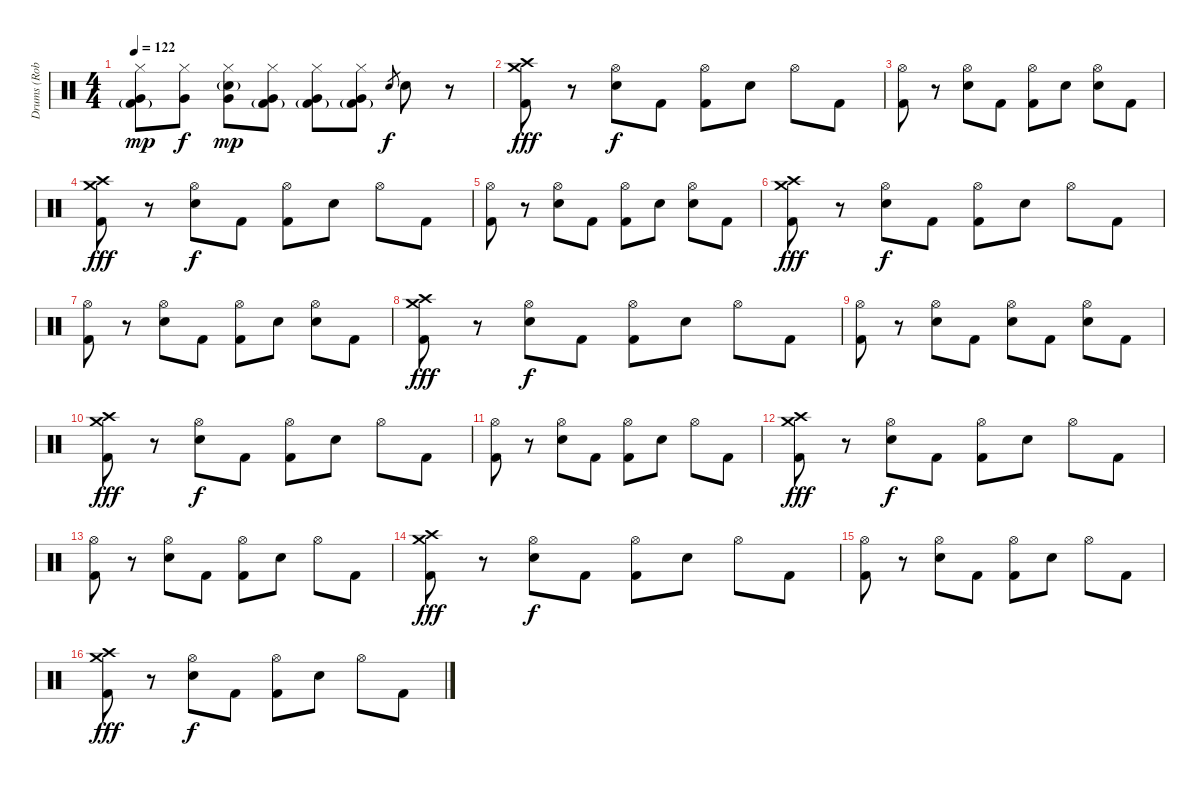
\track ("Drums (Rob Boudron)" "Drums (Rob") {instrument percussion}
\staff {score}
\articulation defaults
\ts (4 4)
\tempo 122
\clef neutral
\ks c
("Hi-Hat (closed)" "Very Low Tom (hit)" "Kick (hit) 2"{g}).8{dy mp} ("Hi-Hat (closed)" "Very Low Tom (hit)").8{dy f} ("Hi-Hat (closed)" "Very Low Tom (hit)" "Electric Snare (hit)"{g}).8{dy mp} ("Hi-Hat (closed)" "Very Low Tom (hit)" "Kick (hit) 2"{g}).8 ("Hi-Hat (closed)" "Very Low Tom (hit)" "Kick (hit) 2"{g}).8 ("Hi-Hat (closed)" "Very Low Tom (hit)" "Kick (hit) 2"{g}).8 "Electric Snare (hit)".8{gr dy f} "Electric Snare (hit)".8 r.8 |
("Crash medium (hit)" "Crash high (hit)" "Kick (hit) 2").8{dy fff} r.8 ("Hi-Hat (open)" "Electric Snare (hit)").8{dy f} "Kick (hit) 2".8 ("Hi-Hat (open)" "Kick (hit) 2").8 "Electric Snare (hit)".8 "Hi-Hat (open)".8 "Kick (hit) 2".8 |
("Hi-Hat (open)" "Kick (hit) 2").8 r.8 ("Hi-Hat (open)" "Electric Snare (hit)").8 "Kick (hit) 2".8 ("Hi-Hat (open)" "Kick (hit) 2").8 "Electric Snare (hit)".8 ("Hi-Hat (open)" "Electric Snare (hit)").8 "Kick (hit) 2".8 |
("Crash medium (hit)" "Crash high (hit)" "Kick (hit) 2").8{dy fff} r.8 ("Hi-Hat (open)" "Electric Snare (hit)").8{dy f} "Kick (hit) 2".8 ("Hi-Hat (open)" "Kick (hit) 2").8 "Electric Snare (hit)".8 "Hi-Hat (open)".8 "Kick (hit) 2".8 |
("Hi-Hat (open)" "Kick (hit) 2").8 r.8 ("Hi-Hat (open)" "Electric Snare (hit)").8 "Kick (hit) 2".8 ("Hi-Hat (open)" "Kick (hit) 2").8 "Electric Snare (hit)".8 ("Hi-Hat (open)" "Electric Snare (hit)").8 "Kick (hit) 2".8 |
("Crash medium (hit)" "Crash high (hit)" "Kick (hit) 2").8{dy fff} r.8 ("Hi-Hat (open)" "Electric Snare (hit)").8{dy f} "Kick (hit) 2".8 ("Hi-Hat (open)" "Kick (hit) 2").8 "Electric Snare (hit)".8 "Hi-Hat (open)".8 "Kick (hit) 2".8 |
("Hi-Hat (open)" "Kick (hit) 2").8 r.8 ("Hi-Hat (open)" "Electric Snare (hit)").8 "Kick (hit) 2".8 ("Hi-Hat (open)" "Kick (hit) 2").8 "Electric Snare (hit)".8 ("Hi-Hat (open)" "Electric Snare (hit)").8 "Kick (hit) 2".8 |
("Crash medium (hit)" "Crash high (hit)" "Kick (hit) 2").8{dy fff} r.8 ("Hi-Hat (open)" "Electric Snare (hit)").8{dy f} "Kick (hit) 2".8 ("Hi-Hat (open)" "Kick (hit) 2").8 "Electric Snare (hit)".8 "Hi-Hat (open)".8 "Kick (hit) 2".8 |
("Hi-Hat (open)" "Kick (hit) 2").8 r.8 ("Hi-Hat (open)" "Electric Snare (hit)").8 "Kick (hit) 2".8 ("Hi-Hat (open)" "Electric Snare (hit)").8 "Kick (hit) 2".8 ("Hi-Hat (open)" "Electric Snare (hit)").8 "Kick (hit) 2".8 |
("Crash medium (hit)" "Crash high (hit)" "Kick (hit) 2").8{dy fff} r.8 ("Hi-Hat (open)" "Electric Snare (hit)").8{dy f} "Kick (hit) 2".8 ("Hi-Hat (open)" "Kick (hit) 2").8 "Electric Snare (hit)".8 "Hi-Hat (open)".8 "Kick (hit) 2".8 |
("Hi-Hat (open)" "Kick (hit) 2").8 r.8 ("Hi-Hat (open)" "Electric Snare (hit)").8 "Kick (hit) 2".8 ("Hi-Hat (open)" "Kick (hit) 2").8 "Electric Snare (hit)".8 "Hi-Hat (open)".8 "Kick (hit) 2".8 |
("Crash medium (hit)" "Crash high (hit)" "Kick (hit) 2").8{dy fff} r.8 ("Hi-Hat (open)" "Electric Snare (hit)").8{dy f} "Kick (hit) 2".8 ("Hi-Hat (open)" "Kick (hit) 2").8 "Electric Snare (hit)".8 "Hi-Hat (open)".8 "Kick (hit) 2".8 |
("Hi-Hat (open)" "Kick (hit) 2").8 r.8 ("Hi-Hat (open)" "Electric Snare (hit)").8 "Kick (hit) 2".8 ("Hi-Hat (open)" "Kick (hit) 2").8 "Electric Snare (hit)".8 "Hi-Hat (open)".8 "Kick (hit) 2".8 |
("Crash medium (hit)" "Crash high (hit)" "Kick (hit) 2").8{dy fff} r.8 ("Hi-Hat (open)" "Electric Snare (hit)").8{dy f} "Kick (hit) 2".8 ("Hi-Hat (open)" "Kick (hit) 2").8 "Electric Snare (hit)".8 "Hi-Hat (open)".8 "Kick (hit) 2".8 |
("Hi-Hat (open)" "Kick (hit) 2").8 r.8 ("Hi-Hat (open)" "Electric Snare (hit)").8 "Kick (hit) 2".8 ("Hi-Hat (open)" "Kick (hit) 2").8 "Electric Snare (hit)".8 "Hi-Hat (open)".8 "Kick (hit) 2".8 |
("Crash medium (hit)" "Crash high (hit)" "Kick (hit) 2").8{dy fff} r.8 ("Hi-Hat (open)" "Electric Snare (hit)").8{dy f} "Kick (hit) 2".8 ("Hi-Hat (open)" "Kick (hit) 2").8 "Electric Snare (hit)".8 "Hi-Hat (open)".8 "Kick (hit) 2".8
